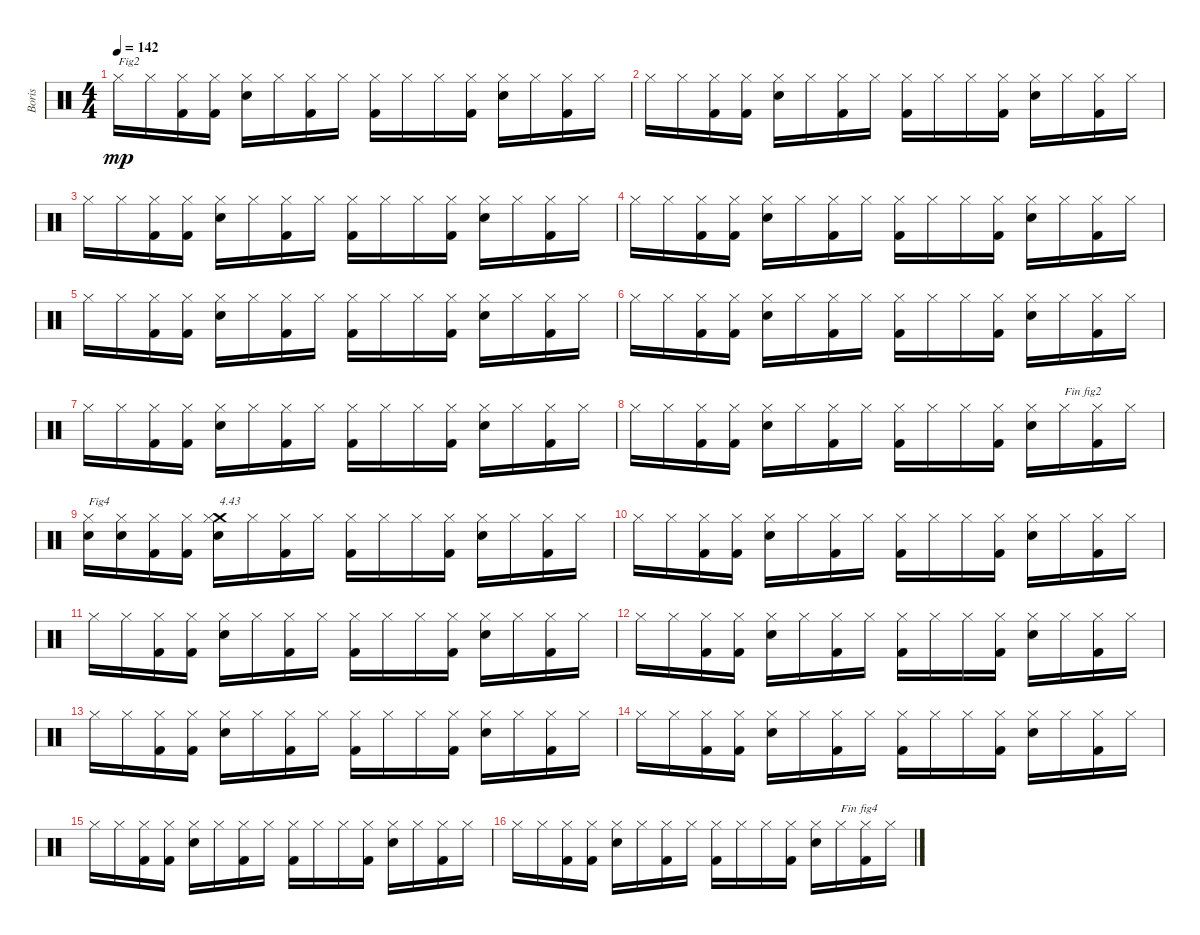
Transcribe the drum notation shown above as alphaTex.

\track ("Boris" "Boris") {instrument percussion}
\staff {score}
\articulation defaults
\ts (4 4)
\tempo 142
\clef neutral
\ks c "Hi-Hat (closed)".16{txt "Fig2" dy mp} "Hi-Hat (closed)".16
("Kick (hit) 2" "Hi-Hat (closed)").16 ("Kick (hit) 2" "Hi-Hat (closed)").16 ("Snare (hit) 2" "Hi-Hat (closed)").16 "Hi-Hat (closed)".16 ("Kick (hit) 2" "Hi-Hat (closed)").16 "Hi-Hat (closed)".16 ("Kick (hit) 2" "Hi-Hat (closed)").16 "Hi-Hat (closed)".16 "Hi-Hat (closed)".16 ("Kick (hit) 2" "Hi-Hat (closed)").16 ("Snare (hit) 2" "Hi-Hat (closed)").16 "Hi-Hat (closed)".16 ("Kick (hit) 2" "Hi-Hat (closed)").16 "Hi-Hat (closed)".16 |
"Hi-Hat (closed)".16 "Hi-Hat (closed)".16 ("Kick (hit) 2" "Hi-Hat (closed)").16 ("Kick (hit) 2" "Hi-Hat (closed)").16 ("Snare (hit) 2" "Hi-Hat (closed)").16 "Hi-Hat (closed)".16 ("Kick (hit) 2" "Hi-Hat (closed)").16 "Hi-Hat (closed)".16 ("Kick (hit) 2" "Hi-Hat (closed)").16 "Hi-Hat (closed)".16 "Hi-Hat (closed)".16 ("Kick (hit) 2" "Hi-Hat (closed)").16 ("Snare (hit) 2" "Hi-Hat (closed)").16 "Hi-Hat (closed)".16 ("Kick (hit) 2" "Hi-Hat (closed)").16 "Hi-Hat (closed)".16 |
"Hi-Hat (closed)".16 "Hi-Hat (closed)".16 ("Kick (hit) 2" "Hi-Hat (closed)").16 ("Kick (hit) 2" "Hi-Hat (closed)").16 ("Snare (hit) 2" "Hi-Hat (closed)").16 "Hi-Hat (closed)".16 ("Kick (hit) 2" "Hi-Hat (closed)").16 "Hi-Hat (closed)".16 ("Kick (hit) 2" "Hi-Hat (closed)").16 "Hi-Hat (closed)".16 "Hi-Hat (closed)".16 ("Kick (hit) 2" "Hi-Hat (closed)").16 ("Snare (hit) 2" "Hi-Hat (closed)").16 "Hi-Hat (closed)".16 ("Kick (hit) 2" "Hi-Hat (closed)").16 "Hi-Hat (closed)".16 |
"Hi-Hat (closed)".16 "Hi-Hat (closed)".16 ("Kick (hit) 2" "Hi-Hat (closed)").16 ("Kick (hit) 2" "Hi-Hat (closed)").16 ("Snare (hit) 2" "Hi-Hat (closed)").16 "Hi-Hat (closed)".16 ("Kick (hit) 2" "Hi-Hat (closed)").16 "Hi-Hat (closed)".16 ("Kick (hit) 2" "Hi-Hat (closed)").16 "Hi-Hat (closed)".16 "Hi-Hat (closed)".16 ("Kick (hit) 2" "Hi-Hat (closed)").16 ("Snare (hit) 2" "Hi-Hat (closed)").16 "Hi-Hat (closed)".16 ("Kick (hit) 2" "Hi-Hat (closed)").16 "Hi-Hat (closed)".16 |
"Hi-Hat (closed)".16 "Hi-Hat (closed)".16 ("Kick (hit) 2" "Hi-Hat (closed)").16 ("Kick (hit) 2" "Hi-Hat (closed)").16 ("Snare (hit) 2" "Hi-Hat (closed)").16 "Hi-Hat (closed)".16 ("Kick (hit) 2" "Hi-Hat (closed)").16 "Hi-Hat (closed)".16 ("Kick (hit) 2" "Hi-Hat (closed)").16 "Hi-Hat (closed)".16 "Hi-Hat (closed)".16 ("Kick (hit) 2" "Hi-Hat (closed)").16 ("Snare (hit) 2" "Hi-Hat (closed)").16 "Hi-Hat (closed)".16 ("Kick (hit) 2" "Hi-Hat (closed)").16 "Hi-Hat (closed)".16 |
"Hi-Hat (closed)".16 "Hi-Hat (closed)".16 ("Kick (hit) 2" "Hi-Hat (closed)").16 ("Kick (hit) 2" "Hi-Hat (closed)").16 ("Snare (hit) 2" "Hi-Hat (closed)").16 "Hi-Hat (closed)".16 ("Kick (hit) 2" "Hi-Hat (closed)").16 "Hi-Hat (closed)".16 ("Kick (hit) 2" "Hi-Hat (closed)").16 "Hi-Hat (closed)".16 "Hi-Hat (closed)".16 ("Kick (hit) 2" "Hi-Hat (closed)").16 ("Snare (hit) 2" "Hi-Hat (closed)").16 "Hi-Hat (closed)".16 ("Kick (hit) 2" "Hi-Hat (closed)").16 "Hi-Hat (closed)".16 |
"Hi-Hat (closed)".16 "Hi-Hat (closed)".16 ("Kick (hit) 2" "Hi-Hat (closed)").16 ("Kick (hit) 2" "Hi-Hat (closed)").16 ("Snare (hit) 2" "Hi-Hat (closed)").16 "Hi-Hat (closed)".16 ("Kick (hit) 2" "Hi-Hat (closed)").16 "Hi-Hat (closed)".16 ("Kick (hit) 2" "Hi-Hat (closed)").16 "Hi-Hat (closed)".16 "Hi-Hat (closed)".16 ("Kick (hit) 2" "Hi-Hat (closed)").16 ("Snare (hit) 2" "Hi-Hat (closed)").16 "Hi-Hat (closed)".16 ("Kick (hit) 2" "Hi-Hat (closed)").16 "Hi-Hat (closed)".16 |
"Hi-Hat (closed)".16 "Hi-Hat (closed)".16 ("Kick (hit) 2" "Hi-Hat (closed)").16 ("Kick (hit) 2" "Hi-Hat (closed)").16 ("Snare (hit) 2" "Hi-Hat (closed)").16 "Hi-Hat (closed)".16 ("Kick (hit) 2" "Hi-Hat (closed)").16 "Hi-Hat (closed)".16 ("Kick (hit) 2" "Hi-Hat (closed)").16 "Hi-Hat (closed)".16 "Hi-Hat (closed)".16 ("Kick (hit) 2" "Hi-Hat (closed)").16 ("Snare (hit) 2" "Hi-Hat (closed)").16 "Hi-Hat (closed)".16{txt "Fin fig2"} ("Kick (hit) 2" "Hi-Hat (closed)").16 "Hi-Hat (closed)".16 |
("Snare (hit) 2" "Hi-Hat (closed)").16{txt "Fig4"} ("Snare (hit) 2" "Hi-Hat (closed)").16 ("Kick (hit) 2" "Hi-Hat (closed)").16 ("Kick (hit) 2" "Hi-Hat (closed)").16 ("Snare (hit) 2" "Crash medium (hit)" "Hi-Hat (closed)").16{txt "4.43"} "Hi-Hat (closed)".16 ("Kick (hit) 2" "Hi-Hat (closed)").16 "Hi-Hat (closed)".16 ("Kick (hit) 2" "Hi-Hat (closed)").16 "Hi-Hat (closed)".16 "Hi-Hat (closed)".16 ("Kick (hit) 2" "Hi-Hat (closed)").16 ("Snare (hit) 2" "Hi-Hat (closed)").16 "Hi-Hat (closed)".16 ("Kick (hit) 2" "Hi-Hat (closed)").16 "Hi-Hat (closed)".16 |
"Hi-Hat (closed)".16 "Hi-Hat (closed)".16 ("Kick (hit) 2" "Hi-Hat (closed)").16 ("Kick (hit) 2" "Hi-Hat (closed)").16 ("Snare (hit) 2" "Hi-Hat (closed)").16 "Hi-Hat (closed)".16 ("Kick (hit) 2" "Hi-Hat (closed)").16 "Hi-Hat (closed)".16 ("Kick (hit) 2" "Hi-Hat (closed)").16 "Hi-Hat (closed)".16 "Hi-Hat (closed)".16 ("Kick (hit) 2" "Hi-Hat (closed)").16 ("Snare (hit) 2" "Hi-Hat (closed)").16 "Hi-Hat (closed)".16 ("Kick (hit) 2" "Hi-Hat (closed)").16 "Hi-Hat (closed)".16 |
"Hi-Hat (closed)".16 "Hi-Hat (closed)".16 ("Kick (hit) 2" "Hi-Hat (closed)").16 ("Kick (hit) 2" "Hi-Hat (closed)").16 ("Snare (hit) 2" "Hi-Hat (closed)").16 "Hi-Hat (closed)".16 ("Kick (hit) 2" "Hi-Hat (closed)").16 "Hi-Hat (closed)".16 ("Kick (hit) 2" "Hi-Hat (closed)").16 "Hi-Hat (closed)".16 "Hi-Hat (closed)".16 ("Kick (hit) 2" "Hi-Hat (closed)").16 ("Snare (hit) 2" "Hi-Hat (closed)").16 "Hi-Hat (closed)".16 ("Kick (hit) 2" "Hi-Hat (closed)").16 "Hi-Hat (closed)".16 |
"Hi-Hat (closed)".16 "Hi-Hat (closed)".16 ("Kick (hit) 2" "Hi-Hat (closed)").16 ("Kick (hit) 2" "Hi-Hat (closed)").16 ("Snare (hit) 2" "Hi-Hat (closed)").16 "Hi-Hat (closed)".16 ("Kick (hit) 2" "Hi-Hat (closed)").16 "Hi-Hat (closed)".16 ("Kick (hit) 2" "Hi-Hat (closed)").16 "Hi-Hat (closed)".16 "Hi-Hat (closed)".16 ("Kick (hit) 2" "Hi-Hat (closed)").16 ("Snare (hit) 2" "Hi-Hat (closed)").16 "Hi-Hat (closed)".16 ("Kick (hit) 2" "Hi-Hat (closed)").16 "Hi-Hat (closed)".16 |
"Hi-Hat (closed)".16 "Hi-Hat (closed)".16 ("Kick (hit) 2" "Hi-Hat (closed)").16 ("Kick (hit) 2" "Hi-Hat (closed)").16 ("Snare (hit) 2" "Hi-Hat (closed)").16 "Hi-Hat (closed)".16 ("Kick (hit) 2" "Hi-Hat (closed)").16 "Hi-Hat (closed)".16 ("Kick (hit) 2" "Hi-Hat (closed)").16 "Hi-Hat (closed)".16 "Hi-Hat (closed)".16 ("Kick (hit) 2" "Hi-Hat (closed)").16 ("Snare (hit) 2" "Hi-Hat (closed)").16 "Hi-Hat (closed)".16 ("Kick (hit) 2" "Hi-Hat (closed)").16 "Hi-Hat (closed)".16 |
"Hi-Hat (closed)".16 "Hi-Hat (closed)".16 ("Kick (hit) 2" "Hi-Hat (closed)").16 ("Kick (hit) 2" "Hi-Hat (closed)").16 ("Snare (hit) 2" "Hi-Hat (closed)").16 "Hi-Hat (closed)".16 ("Kick (hit) 2" "Hi-Hat (closed)").16 "Hi-Hat (closed)".16 ("Kick (hit) 2" "Hi-Hat (closed)").16 "Hi-Hat (closed)".16 "Hi-Hat (closed)".16 ("Kick (hit) 2" "Hi-Hat (closed)").16 ("Snare (hit) 2" "Hi-Hat (closed)").16 "Hi-Hat (closed)".16 ("Kick (hit) 2" "Hi-Hat (closed)").16 "Hi-Hat (closed)".16 |
"Hi-Hat (closed)".16 "Hi-Hat (closed)".16 ("Kick (hit) 2" "Hi-Hat (closed)").16 ("Kick (hit) 2" "Hi-Hat (closed)").16 ("Snare (hit) 2" "Hi-Hat (closed)").16 "Hi-Hat (closed)".16 ("Kick (hit) 2" "Hi-Hat (closed)").16 "Hi-Hat (closed)".16 ("Kick (hit) 2" "Hi-Hat (closed)").16 "Hi-Hat (closed)".16 "Hi-Hat (closed)".16 ("Kick (hit) 2" "Hi-Hat (closed)").16 ("Snare (hit) 2" "Hi-Hat (closed)").16 "Hi-Hat (closed)".16 ("Kick (hit) 2" "Hi-Hat (closed)").16 "Hi-Hat (closed)".16 |
"Hi-Hat (closed)".16 "Hi-Hat (closed)".16 ("Kick (hit) 2" "Hi-Hat (closed)").16 ("Kick (hit) 2" "Hi-Hat (closed)").16 ("Snare (hit) 2" "Hi-Hat (closed)").16 "Hi-Hat (closed)".16 ("Kick (hit) 2" "Hi-Hat (closed)").16 "Hi-Hat (closed)".16 ("Kick (hit) 2" "Hi-Hat (closed)").16 "Hi-Hat (closed)".16 "Hi-Hat (closed)".16 ("Kick (hit) 2" "Hi-Hat (closed)").16 ("Snare (hit) 2" "Hi-Hat (closed)").16 "Hi-Hat (closed)".16{txt "Fin fig4"} ("Kick (hit) 2" "Hi-Hat (closed)").16 "Hi-Hat (closed)".16
